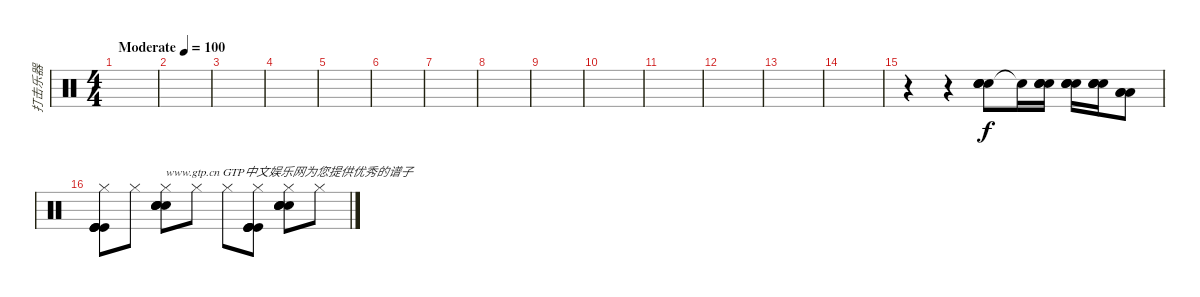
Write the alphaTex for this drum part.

\track ("打击乐器" "打击乐器") {instrument percussion}
\staff {score}
\articulation defaults
\ts (4 4)
\tempo (100 "Moderate")
\clef neutral
\ks c
|
|
|
|
|
|
|
|
|
|
|
|
|
|
r.4 r.4 ("Snare (hit) 2" "Snare (hit) 2" "Snare (hit) 2" "Snare (hit) 2").8 "Snare (hit)"{t}.16 ("Snare (hit) 2" "Snare (hit) 2" "Snare (hit) 2" "Snare (hit) 2").16 ("Snare (hit) 2" "Snare (hit) 2" "Snare (hit) 2" "Snare (hit) 2").16 ("Snare (hit) 2" "Snare (hit) 2" "Snare (hit) 2" "Snare (hit) 2").16 ("Low Floor Tom (hit)" "Low Floor Tom (hit)" "Low Floor Tom (hit)").8 |
("Hi-Hat (closed)" "Kick (hit)" "Kick (hit)" "Kick (hit)" "Kick (hit)").8 "Hi-Hat (closed)".8 ("Hi-Hat (closed)" "Snare (hit) 2" "Snare (hit) 2" "Snare (hit) 2" "Snare (hit) 2").8{txt "www.gtp.cn GTP中文娱乐网为您提供优秀的谱子"} "Hi-Hat (closed)".8 "Hi-Hat (closed)".8 ("Hi-Hat (closed)" "Kick (hit)" "Kick (hit)" "Kick (hit)" "Kick (hit)").8 ("Hi-Hat (closed)" "Snare (hit) 2" "Snare (hit) 2" "Snare (hit) 2" "Snare (hit) 2").8 "Hi-Hat (closed)".8
